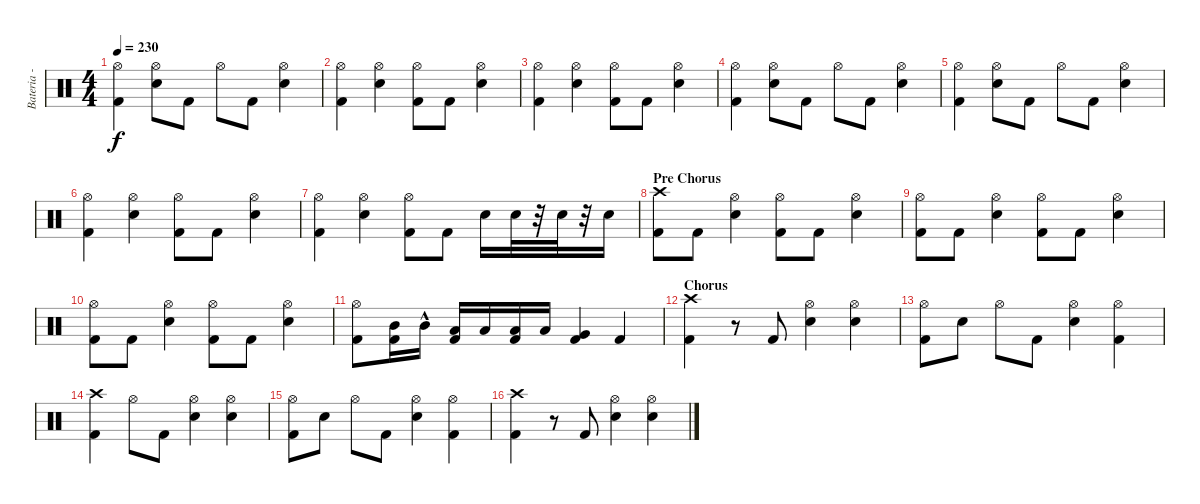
\track ("Bateria - Larzon" "Bateria - ") {instrument percussion}
\staff {score}
\articulation defaults
\ts (4 4)
\tempo 230
\clef neutral
\ks c
("Hi-Hat (open)" "Kick (hit) 2").4{dy f} ("Hi-Hat (open)" "Electric Snare (hit)").8 "Kick (hit) 2".8 "Hi-Hat (open)".8 "Kick (hit) 2".8 ("Hi-Hat (open)" "Electric Snare (hit)").4 |
("Hi-Hat (open)" "Kick (hit) 2").4 ("Hi-Hat (open)" "Electric Snare (hit)").4 ("Hi-Hat (open)" "Kick (hit) 2").8 "Kick (hit) 2".8 ("Hi-Hat (open)" "Electric Snare (hit)").4 |
("Hi-Hat (open)" "Kick (hit) 2").4 ("Hi-Hat (open)" "Electric Snare (hit)").4 ("Hi-Hat (open)" "Kick (hit) 2").8 "Kick (hit) 2".8 ("Hi-Hat (open)" "Electric Snare (hit)").4 |
("Hi-Hat (open)" "Kick (hit) 2").4 ("Hi-Hat (open)" "Electric Snare (hit)").8 "Kick (hit) 2".8 "Hi-Hat (open)".8 "Kick (hit) 2".8 ("Hi-Hat (open)" "Electric Snare (hit)").4 |
("Hi-Hat (open)" "Kick (hit) 2").4 ("Hi-Hat (open)" "Electric Snare (hit)").8 "Kick (hit) 2".8 "Hi-Hat (open)".8 "Kick (hit) 2".8 ("Hi-Hat (open)" "Electric Snare (hit)").4 |
("Hi-Hat (open)" "Kick (hit) 2").4 ("Hi-Hat (open)" "Electric Snare (hit)").4 ("Hi-Hat (open)" "Kick (hit) 2").8 "Kick (hit) 2".8 ("Hi-Hat (open)" "Electric Snare (hit)").4 |
("Hi-Hat (open)" "Kick (hit) 2").4 ("Hi-Hat (open)" "Electric Snare (hit)").4 ("Hi-Hat (open)" "Kick (hit) 2").8 "Kick (hit) 2".8 "Electric Snare (hit)".16 "Electric Snare (hit)".32 r.32 "Electric Snare (hit)".32 r.32 "Electric Snare (hit)".16 |
\section ("" "Pre Chorus")
("Crash high (hit)" "Kick (hit) 2").8 "Kick (hit) 2".8 ("Hi-Hat (open)" "Electric Snare (hit)").4 ("Kick (hit) 2" "Hi-Hat (open)").8 "Kick (hit) 2".8 ("Hi-Hat (open)" "Electric Snare (hit)").4 |
("Kick (hit) 2" "Hi-Hat (open)").8 "Kick (hit) 2".8 ("Hi-Hat (open)" "Electric Snare (hit)").4 ("Kick (hit) 2" "Hi-Hat (open)").8 "Kick (hit) 2".8 ("Hi-Hat (open)" "Electric Snare (hit)").4 |
("Kick (hit) 2" "Hi-Hat (open)").8 "Kick (hit) 2".8 ("Hi-Hat (open)" "Electric Snare (hit)").4 ("Kick (hit) 2" "Hi-Hat (open)").8 "Kick (hit) 2".8 ("Hi-Hat (open)" "Electric Snare (hit)").4 |
("Kick (hit) 2" "Hi-Hat (open)").8 ("Mid Tom (hit)" "Kick (hit) 2").16 "Mid Tom (hit)"{hac}.16 ("Kick (hit) 2" "Low Tom (hit)").16 "Low Tom (hit)".16 ("Kick (hit) 2" "Low Tom (hit)").16 "Low Tom (hit)".16 ("Kick (hit) 2" "Very Low Tom (hit)").4 "Kick (hit) 2".4 |
\section ("" "Chorus")
("Crash high (hit)" "Kick (hit) 2").4 r.8 "Kick (hit) 2".8 ("Electric Snare (hit)" "Hi-Hat (open)").4 ("Hi-Hat (open)" "Electric Snare (hit)").4 |
("Hi-Hat (open)" "Kick (hit) 2").8 "Electric Snare (hit)".8 "Hi-Hat (open)".8 "Kick (hit) 2".8 ("Hi-Hat (open)" "Electric Snare (hit)").4 ("Hi-Hat (open)" "Kick (hit) 2").4 |
("Crash high (hit)" "Kick (hit) 2").4 "Hi-Hat (open)".8 "Kick (hit) 2".8 ("Electric Snare (hit)" "Hi-Hat (open)").4 ("Hi-Hat (open)" "Electric Snare (hit)").4 |
("Hi-Hat (open)" "Kick (hit) 2").8 "Electric Snare (hit)".8 "Hi-Hat (open)".8 "Kick (hit) 2".8 ("Hi-Hat (open)" "Electric Snare (hit)").4 ("Hi-Hat (open)" "Kick (hit) 2").4 |
("Crash high (hit)" "Kick (hit) 2").4 r.8 "Kick (hit) 2".8 ("Electric Snare (hit)" "Hi-Hat (open)").4 ("Hi-Hat (open)" "Electric Snare (hit)").4
